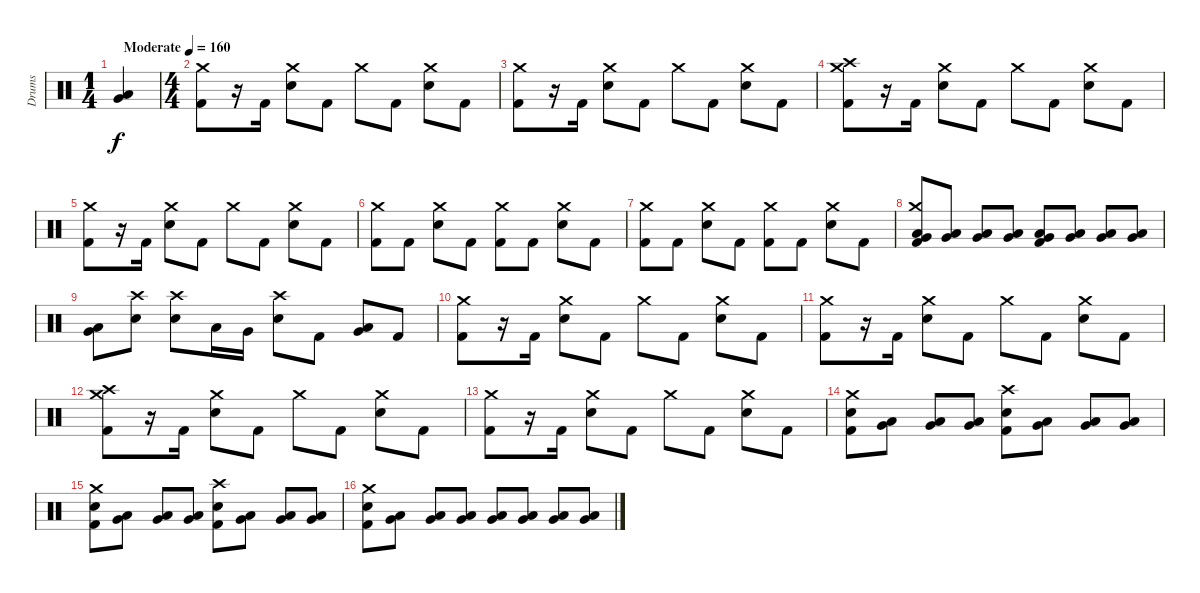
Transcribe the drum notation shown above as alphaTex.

\track ("Drums" "Drums") {instrument percussion}
\staff {score}
\articulation defaults
\ts (1 4)
\tempo (160 "Moderate")
\clef neutral
\ks c
("Very Low Tom (hit)" "Low Floor Tom (hit)").4{dy f} |
\ts (4 4)
("Crash medium (hit)" "Kick (hit) 2").8 r.16 "Kick (hit) 2".16 ("Crash medium (hit)" "Electric Snare (hit)").8 "Kick (hit) 2".8 "Crash medium (hit)".8 "Kick (hit) 2".8 ("Crash medium (hit)" "Electric Snare (hit)").8 "Kick (hit) 2".8 |
("Crash medium (hit)" "Kick (hit) 2").8 r.16 "Kick (hit) 2".16 ("Crash medium (hit)" "Electric Snare (hit)").8 "Kick (hit) 2".8 "Crash medium (hit)".8 "Kick (hit) 2".8 ("Crash medium (hit)" "Electric Snare (hit)").8 "Kick (hit) 2".8 |
("Crash medium (hit)" "Crash high (hit)" "Kick (hit) 2").8 r.16 "Kick (hit) 2".16 ("Crash medium (hit)" "Electric Snare (hit)").8 "Kick (hit) 2".8 "Crash medium (hit)".8 "Kick (hit) 2".8 ("Crash medium (hit)" "Electric Snare (hit)").8 "Kick (hit) 2".8 |
("Crash medium (hit)" "Kick (hit) 2").8 r.16 "Kick (hit) 2".16 ("Crash medium (hit)" "Electric Snare (hit)").8 "Kick (hit) 2".8 "Crash medium (hit)".8 "Kick (hit) 2".8 ("Crash medium (hit)" "Electric Snare (hit)").8 "Kick (hit) 2".8 |
("Crash medium (hit)" "Kick (hit) 2").8 "Kick (hit) 2".8 ("Crash medium (hit)" "Electric Snare (hit)").8 "Kick (hit) 2".8 ("Crash medium (hit)" "Kick (hit) 2").8 "Kick (hit) 2".8 ("Crash medium (hit)" "Electric Snare (hit)").8 "Kick (hit) 2".8 |
("Crash medium (hit)" "Kick (hit) 2").8 "Kick (hit) 2".8 ("Crash medium (hit)" "Electric Snare (hit)").8 "Kick (hit) 2".8 ("Crash medium (hit)" "Kick (hit) 2").8 "Kick (hit) 2".8 ("Crash medium (hit)" "Electric Snare (hit)").8 "Kick (hit) 2".8 |
("Crash medium (hit)" "Low Tom (hit)" "Very Low Tom (hit)" "Kick (hit) 2").8 ("Low Floor Tom (hit)" "Very Low Tom (hit)").8 ("Low Floor Tom (hit)" "Very Low Tom (hit)").8 ("Low Floor Tom (hit)" "Very Low Tom (hit)").8 ("Low Floor Tom (hit)" "Very Low Tom (hit)" "Kick (hit) 2").8 ("Low Floor Tom (hit)" "Very Low Tom (hit)").8 ("Low Floor Tom (hit)" "Very Low Tom (hit)").8 ("Low Floor Tom (hit)" "Very Low Tom (hit)").8 |
("Low Floor Tom (hit)" "Very Low Tom (hit)").8 ("Crash high (hit)" "Electric Snare (hit)").8 ("Crash high (hit)" "Electric Snare (hit)").8 "Low Tom (hit)".16 "Very Low Tom (hit)".16 ("Crash high (hit)" "Electric Snare (hit)").8 "Kick (hit) 2".8 ("Low Tom (hit)" "Very Low Tom (hit)").8 "Kick (hit) 2".8 |
("Crash medium (hit)" "Kick (hit) 2").8 r.16 "Kick (hit) 2".16 ("Crash medium (hit)" "Electric Snare (hit)").8 "Kick (hit) 2".8 "Crash medium (hit)".8 "Kick (hit) 2".8 ("Crash medium (hit)" "Electric Snare (hit)").8 "Kick (hit) 2".8 |
("Crash medium (hit)" "Kick (hit) 2").8 r.16 "Kick (hit) 2".16 ("Crash medium (hit)" "Electric Snare (hit)").8 "Kick (hit) 2".8 "Crash medium (hit)".8 "Kick (hit) 2".8 ("Crash medium (hit)" "Electric Snare (hit)").8 "Kick (hit) 2".8 |
("Crash medium (hit)" "Crash high (hit)" "Kick (hit) 2").8 r.16 "Kick (hit) 2".16 ("Crash medium (hit)" "Electric Snare (hit)").8 "Kick (hit) 2".8 "Crash medium (hit)".8 "Kick (hit) 2".8 ("Crash medium (hit)" "Electric Snare (hit)").8 "Kick (hit) 2".8 |
("Crash medium (hit)" "Kick (hit) 2").8 r.16 "Kick (hit) 2".16 ("Crash medium (hit)" "Electric Snare (hit)").8 "Kick (hit) 2".8 "Crash medium (hit)".8 "Kick (hit) 2".8 ("Crash medium (hit)" "Electric Snare (hit)").8 "Kick (hit) 2".8 |
("Crash medium (hit)" "Electric Snare (hit)" "Kick (hit) 2").8 ("Low Floor Tom (hit)" "Very Low Tom (hit)").8 ("Low Floor Tom (hit)" "Very Low Tom (hit)").8 ("Low Floor Tom (hit)" "Very Low Tom (hit)").8 ("Crash high (hit)" "Electric Snare (hit)" "Kick (hit) 2").8 ("Low Floor Tom (hit)" "Very Low Tom (hit)").8 ("Low Floor Tom (hit)" "Very Low Tom (hit)").8 ("Low Floor Tom (hit)" "Very Low Tom (hit)").8 |
("Crash medium (hit)" "Electric Snare (hit)" "Kick (hit) 2").8 ("Low Floor Tom (hit)" "Very Low Tom (hit)").8 ("Low Floor Tom (hit)" "Very Low Tom (hit)").8 ("Low Floor Tom (hit)" "Very Low Tom (hit)").8 ("Crash high (hit)" "Electric Snare (hit)" "Kick (hit) 2").8 ("Low Floor Tom (hit)" "Very Low Tom (hit)").8 ("Low Floor Tom (hit)" "Very Low Tom (hit)").8 ("Low Floor Tom (hit)" "Very Low Tom (hit)").8 |
("Crash medium (hit)" "Electric Snare (hit)" "Kick (hit) 2").8 ("Low Tom (hit)" "Very Low Tom (hit)").8 ("Low Tom (hit)" "Very Low Tom (hit)").8 ("Low Tom (hit)" "Very Low Tom (hit)").8 ("Low Tom (hit)" "Very Low Tom (hit)").8 ("Low Tom (hit)" "Very Low Tom (hit)").8 ("Low Tom (hit)" "Very Low Tom (hit)").8 ("Low Tom (hit)" "Very Low Tom (hit)").8
